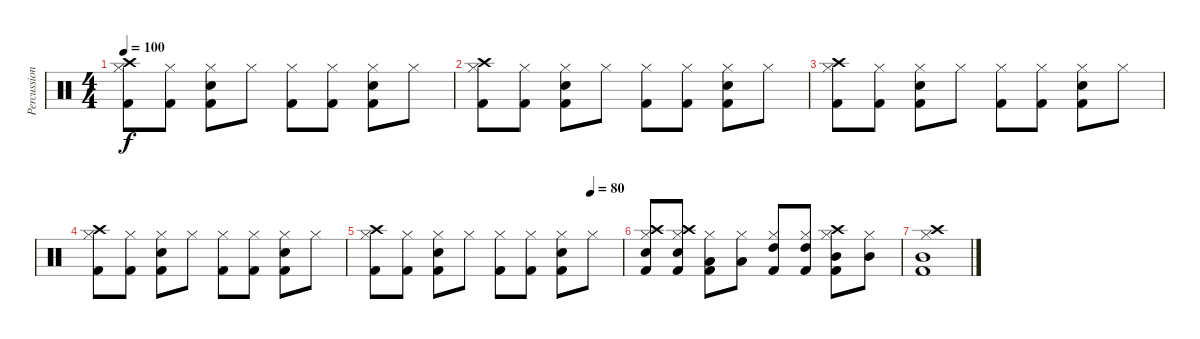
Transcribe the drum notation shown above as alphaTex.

\track ("Percussion" "Percussion") {instrument percussion}
\staff {score}
\articulation defaults
\ts (4 4)
\tempo 100
\clef neutral
\ks c
("Kick (hit) 2" "Hi-Hat (closed)" "Crash high (hit)").8{dy f} ("Kick (hit) 2" "Hi-Hat (closed)").8 ("Kick (hit) 2" "Snare (hit) 2" "Hi-Hat (closed)").8 "Hi-Hat (closed)".8 ("Kick (hit) 2" "Hi-Hat (closed)").8 ("Kick (hit) 2" "Hi-Hat (closed)").8 ("Kick (hit) 2" "Snare (hit) 2" "Hi-Hat (closed)").8 "Hi-Hat (closed)".8 |
("Kick (hit) 2" "Hi-Hat (closed)" "Crash high (hit)").8 ("Kick (hit) 2" "Hi-Hat (closed)").8 ("Kick (hit) 2" "Snare (hit) 2" "Hi-Hat (closed)").8 "Hi-Hat (closed)".8 ("Kick (hit) 2" "Hi-Hat (closed)").8 ("Kick (hit) 2" "Hi-Hat (closed)").8 ("Kick (hit) 2" "Snare (hit) 2" "Hi-Hat (closed)").8 "Hi-Hat (closed)".8 |
("Kick (hit) 2" "Hi-Hat (closed)" "Crash high (hit)").8 ("Kick (hit) 2" "Hi-Hat (closed)").8 ("Kick (hit) 2" "Snare (hit) 2" "Hi-Hat (closed)").8 "Hi-Hat (closed)".8 ("Kick (hit) 2" "Hi-Hat (closed)").8 ("Kick (hit) 2" "Hi-Hat (closed)").8 ("Kick (hit) 2" "Snare (hit) 2" "Hi-Hat (closed)").8 "Hi-Hat (closed)".8 |
("Kick (hit) 2" "Hi-Hat (closed)" "Crash high (hit)").8 ("Kick (hit) 2" "Hi-Hat (closed)").8 ("Kick (hit) 2" "Snare (hit) 2" "Hi-Hat (closed)").8 "Hi-Hat (closed)".8 ("Kick (hit) 2" "Hi-Hat (closed)").8 ("Kick (hit) 2" "Hi-Hat (closed)").8 ("Kick (hit) 2" "Snare (hit) 2" "Hi-Hat (closed)").8 "Hi-Hat (closed)".8 |
\tempo (80 0.875)
("Kick (hit) 2" "Hi-Hat (closed)" "Crash high (hit)").8 ("Kick (hit) 2" "Hi-Hat (closed)").8 ("Kick (hit) 2" "Snare (hit) 2" "Hi-Hat (closed)").8 "Hi-Hat (closed)".8 ("Kick (hit) 2" "Hi-Hat (closed)").8 ("Kick (hit) 2" "Hi-Hat (closed)").8 ("Kick (hit) 2" "Snare (hit) 2" "Hi-Hat (closed)").8 "Hi-Hat (closed)".8 |
("Kick (hit) 2" "Snare (hit) 2" "Hi-Hat (closed)" "Crash high (hit)").8 ("Kick (hit) 2" "Snare (hit) 2" "Hi-Hat (closed)" "Crash high (hit)").8 ("Kick (hit) 2" "Low Floor Tom (hit)" "Hi-Hat (closed)").8 ("Low Floor Tom (hit)" "Hi-Hat (closed)").8 ("Kick (hit) 2" "High Tom (hit)" "Hi-Hat (closed)").8 ("Kick (hit) 2" "High Tom (hit)" "Hi-Hat (closed)").8 ("Kick (hit) 2" "Mid Tom (hit)" "Hi-Hat (closed)" "Crash high (hit)").8 ("Mid Tom (hit)" "Hi-Hat (closed)").8 |
("Kick (hit) 2" "Mid Tom (hit)" "Hi-Hat (closed)" "Crash high (hit)").1
